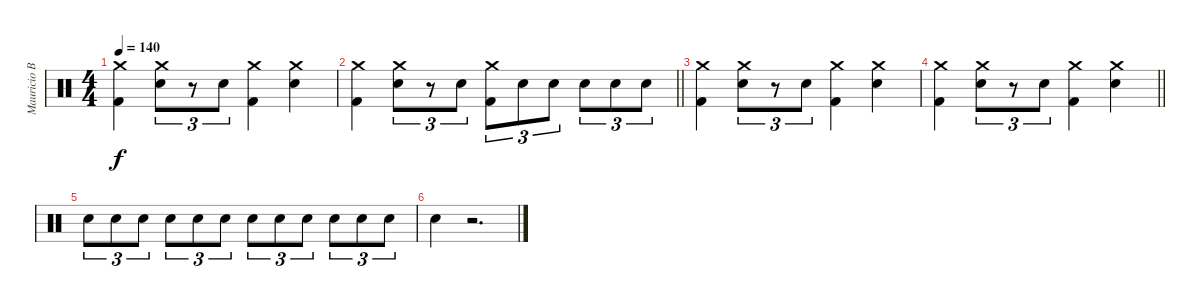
\track ("Mauricio Basualto" "Mauricio B") {instrument percussion}
\staff {score}
\articulation defaults
\ts (4 4)
\tempo 140
\clef neutral
\ks c
("Crash medium (hit)" "Kick (hit) 2").4{dy f} ("Crash medium (hit)" "Electric Snare (hit)").8{tu (3 2)} r.8{tu (3 2)} "Electric Snare (hit)".8{tu (3 2)} ("Crash medium (hit)" "Kick (hit) 2").4 ("Crash medium (hit)" "Electric Snare (hit)").4 |
\barLineRight lightlight
("Crash medium (hit)" "Kick (hit) 2").4 ("Crash medium (hit)" "Electric Snare (hit)").8{tu (3 2)} r.8{tu (3 2)} "Electric Snare (hit)".8{tu (3 2)} ("Crash medium (hit)" "Kick (hit) 2").8{tu (3 2)} "Electric Snare (hit)".8{tu (3 2)} "Electric Snare (hit)".8{tu (3 2)} "Electric Snare (hit)".8{tu (3 2)} "Electric Snare (hit)".8{tu (3 2)} "Electric Snare (hit)".8{tu (3 2)} |
("Crash medium (hit)" "Kick (hit) 2").4 ("Crash medium (hit)" "Electric Snare (hit)").8{tu (3 2)} r.8{tu (3 2)} "Electric Snare (hit)".8{tu (3 2)} ("Crash medium (hit)" "Kick (hit) 2").4 ("Crash medium (hit)" "Electric Snare (hit)").4 |
\barLineRight lightlight
("Crash medium (hit)" "Kick (hit) 2").4 ("Crash medium (hit)" "Electric Snare (hit)").8{tu (3 2)} r.8{tu (3 2)} "Electric Snare (hit)".8{tu (3 2)} ("Crash medium (hit)" "Kick (hit) 2").4 ("Crash medium (hit)" "Electric Snare (hit)").4 |
"Electric Snare (hit)".8{tu (3 2)} "Electric Snare (hit)".8{tu (3 2)} "Electric Snare (hit)".8{tu (3 2)} "Electric Snare (hit)".8{tu (3 2)} "Electric Snare (hit)".8{tu (3 2)} "Electric Snare (hit)".8{tu (3 2)} "Electric Snare (hit)".8{tu (3 2)} "Electric Snare (hit)".8{tu (3 2)} "Electric Snare (hit)".8{tu (3 2)} "Electric Snare (hit)".8{tu (3 2)} "Electric Snare (hit)".8{tu (3 2)} "Electric Snare (hit)".8{tu (3 2)} |
"Electric Snare (hit)".4 r.2{d}
